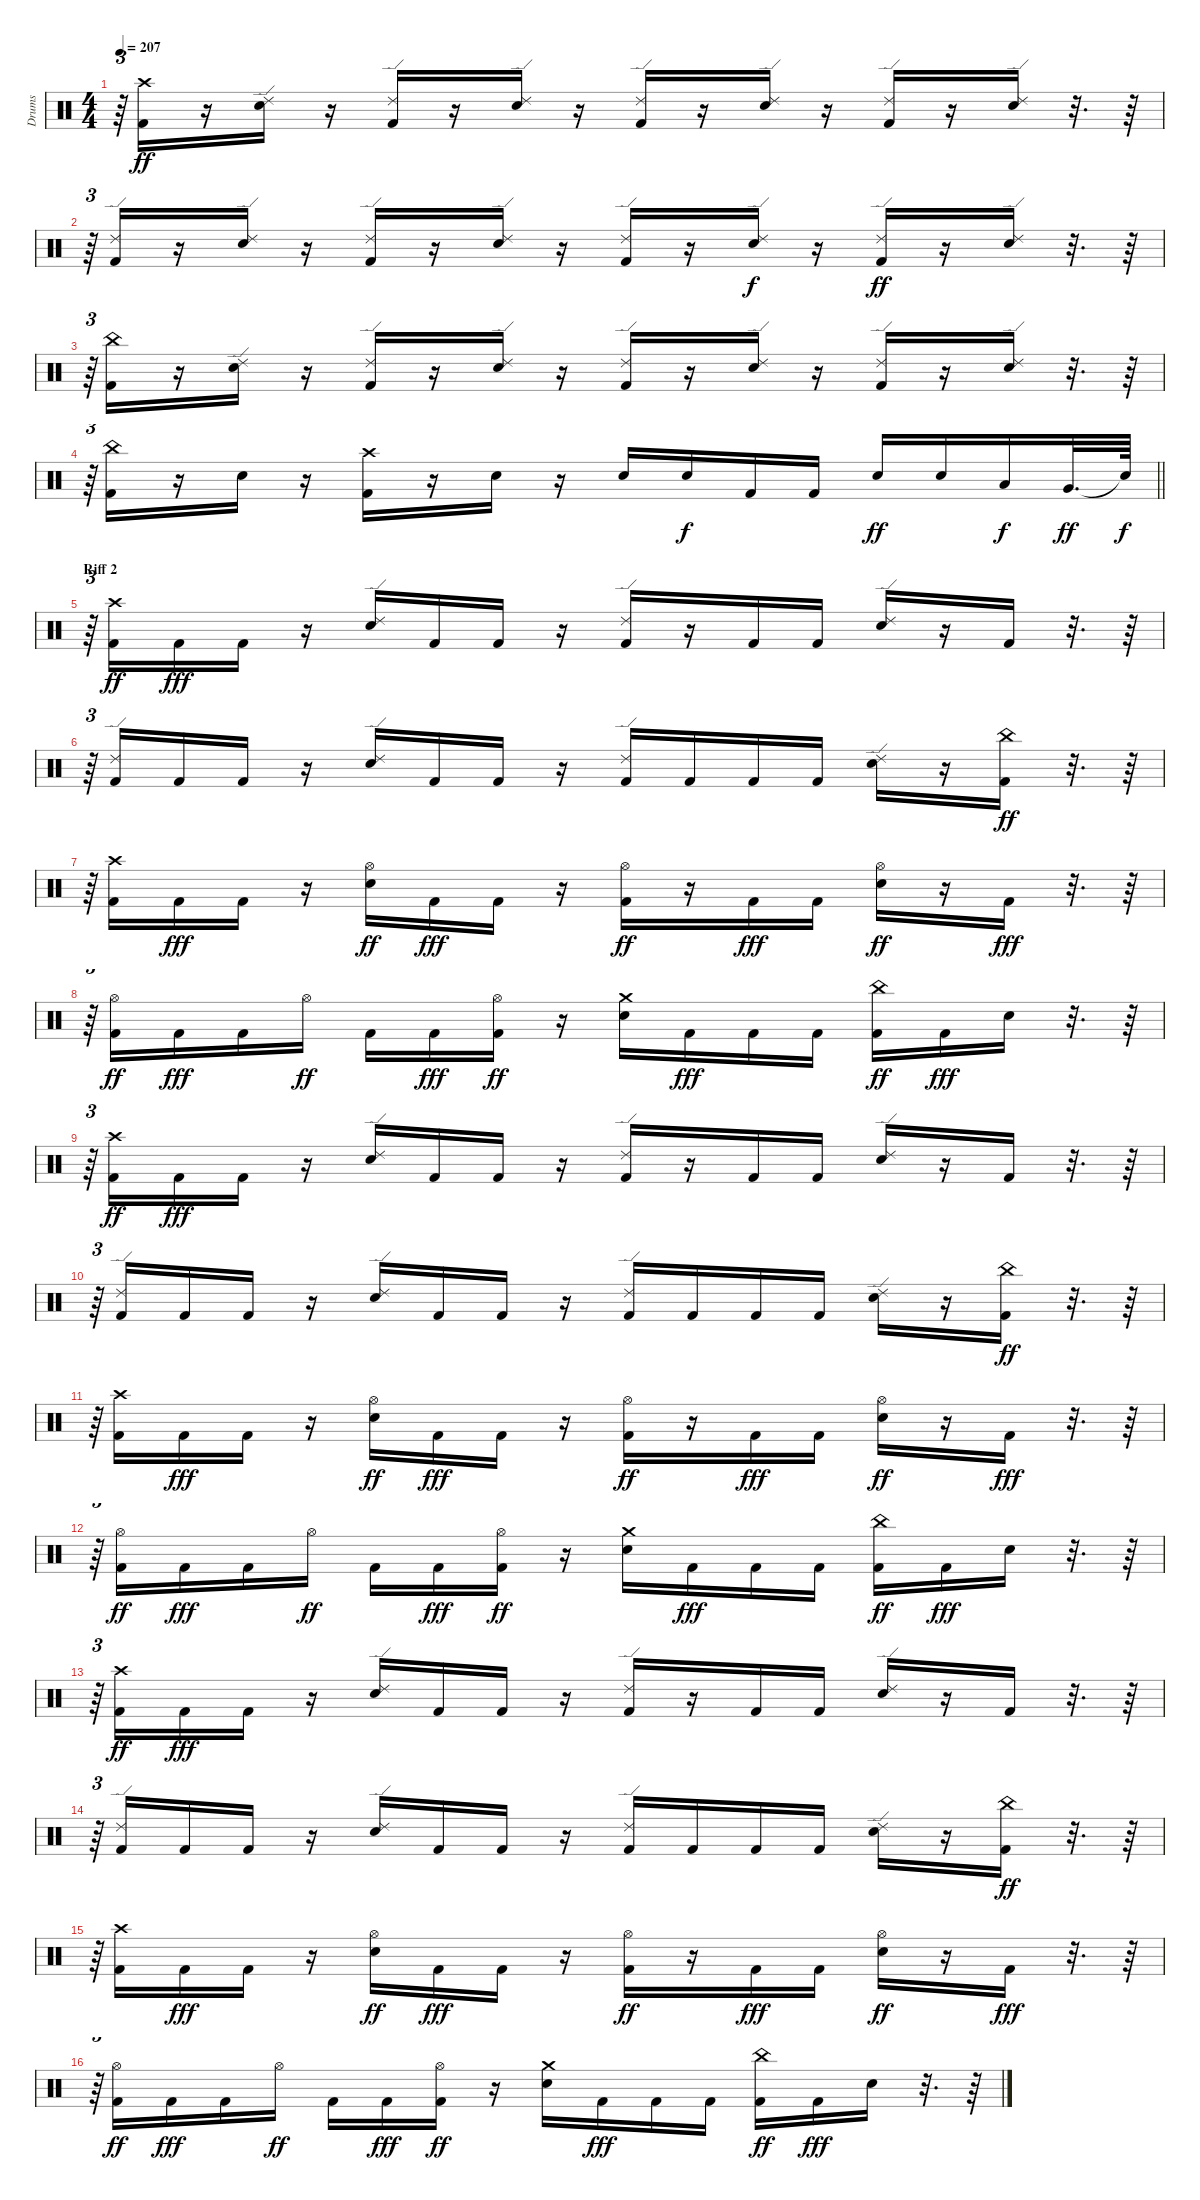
\track ("Drums" "Drums") {instrument percussion}
\staff {score}
\articulation defaults
\ts (4 4)
\tempo 207
\clef neutral
\ks c
r.64{tu (3 2) dy ff} ("Kick (hit) 2" "Crash high (hit)").16 r.16 ("Snare (hit) 2" "Ride (edge) 2").16 r.16 ("Kick (hit) 2" "Ride (edge) 2").16 r.16 ("Snare (hit) 2" "Ride (edge) 2").16 r.16 ("Kick (hit) 2" "Ride (edge) 2").16 r.16 ("Snare (hit) 2" "Ride (edge) 2").16 r.16 ("Kick (hit) 2" "Ride (edge) 2").16 r.16 ("Snare (hit) 2" "Ride (edge) 2").16 r.32{d} r.64 |
r.64{tu (3 2)} ("Kick (hit) 2" "Ride (edge) 2").16 r.16 ("Snare (hit) 2" "Ride (edge) 2").16 r.16 ("Kick (hit) 2" "Ride (edge) 2").16 r.16 ("Snare (hit) 2" "Ride (edge) 2").16 r.16 ("Kick (hit) 2" "Ride (edge) 2").16 r.16 ("Snare (hit) 2" "Ride (edge) 2").16{dy f} r.16 ("Kick (hit) 2" "Ride (edge) 2").16{dy ff} r.16 ("Snare (hit) 2" "Ride (edge) 2").16 r.32{d} r.64 |
r.64{tu (3 2)} ("Kick (hit) 2" "China (hit)").16 r.16 ("Snare (hit) 2" "Ride (edge) 2").16 r.16 ("Kick (hit) 2" "Ride (edge) 2").16 r.16 ("Snare (hit) 2" "Ride (edge) 2").16 r.16 ("Kick (hit) 2" "Ride (edge) 2").16 r.16 ("Snare (hit) 2" "Ride (edge) 2").16 r.16 ("Kick (hit) 2" "Ride (edge) 2").16 r.16 ("Snare (hit) 2" "Ride (edge) 2").16 r.32{d} r.64 |
\barLineRight lightlight
r.64{tu (3 2)} ("Kick (hit) 2" "China (hit)").16 r.16 "Snare (hit) 2".16 r.16 ("Kick (hit) 2" "Crash high (hit)").16 r.16 "Snare (hit) 2".16 r.16 "Snare (hit) 2".16 "Snare (hit) 2".16{dy f} "Kick (hit) 2".16 "Kick (hit) 2".16 "Snare (hit) 2".16{dy ff} "Snare (hit) 2".16 "Low Tom (hit)".16{dy f} "Very Low Tom (hit)".32{d dy ff} "Snare (hit)"{t}.64{dy f} |
\section ("" "Riff 2")
r.64{tu (3 2)} ("Kick (hit) 2" "Crash high (hit)").16{dy ff} "Kick (hit) 2".16{dy fff} "Kick (hit) 2".16 r.16 ("Snare (hit) 2" "Ride (edge) 2").16 "Kick (hit) 2".16 "Kick (hit) 2".16 r.16 ("Kick (hit) 2" "Ride (edge) 2").16 r.16 "Kick (hit) 2".16 "Kick (hit) 2".16 ("Snare (hit) 2" "Ride (edge) 2").16 r.16 "Kick (hit) 2".16 r.32{d} r.64 |
r.64{tu (3 2)} ("Kick (hit) 2" "Ride (edge) 2").16 "Kick (hit) 2".16 "Kick (hit) 2".16 r.16 ("Snare (hit) 2" "Ride (edge) 2").16 "Kick (hit) 2".16 "Kick (hit) 2".16 r.16 ("Kick (hit) 2" "Ride (edge) 2").16 "Kick (hit) 2".16 "Kick (hit) 2".16 "Kick (hit) 2".16 ("Snare (hit) 2" "Ride (edge) 2").16 r.16 ("Kick (hit) 2" "China (hit)").16{dy ff} r.32{d} r.64 |
r.64{tu (3 2)} ("Kick (hit) 2" "Crash high (hit)").16 "Kick (hit) 2".16{dy fff} "Kick (hit) 2".16 r.16 ("Snare (hit) 2" "Hi-Hat (open)").16{dy ff} "Kick (hit) 2".16{dy fff} "Kick (hit) 2".16 r.16 ("Kick (hit) 2" "Hi-Hat (open)").16{dy ff} r.16 "Kick (hit) 2".16{dy fff} "Kick (hit) 2".16 ("Snare (hit) 2" "Hi-Hat (open)").16{dy ff} r.16 "Kick (hit) 2".16{dy fff} r.32{d} r.64 |
r.64{tu (3 2)} ("Kick (hit) 2" "Hi-Hat (open)").16{dy ff} "Kick (hit) 2".16{dy fff} "Kick (hit) 2".16 "Hi-Hat (open)".16{dy ff} "Kick (hit) 2".16 "Kick (hit) 2".16{dy fff} ("Kick (hit) 2" "Hi-Hat (open)").16{dy ff} r.16 ("Snare (hit) 2" "Crash medium (hit)").16 "Kick (hit) 2".16{dy fff} "Kick (hit) 2".16 "Kick (hit) 2".16 ("Kick (hit) 2" "China (hit)").16{dy ff} "Kick (hit) 2".16{dy fff} "Snare (hit) 2".16 r.32{d} r.64 |
r.64{tu (3 2)} ("Kick (hit) 2" "Crash high (hit)").16{dy ff} "Kick (hit) 2".16{dy fff} "Kick (hit) 2".16 r.16 ("Snare (hit) 2" "Ride (edge) 2").16 "Kick (hit) 2".16 "Kick (hit) 2".16 r.16 ("Kick (hit) 2" "Ride (edge) 2").16 r.16 "Kick (hit) 2".16 "Kick (hit) 2".16 ("Snare (hit) 2" "Ride (edge) 2").16 r.16 "Kick (hit) 2".16 r.32{d} r.64 |
r.64{tu (3 2)} ("Kick (hit) 2" "Ride (edge) 2").16 "Kick (hit) 2".16 "Kick (hit) 2".16 r.16 ("Snare (hit) 2" "Ride (edge) 2").16 "Kick (hit) 2".16 "Kick (hit) 2".16 r.16 ("Kick (hit) 2" "Ride (edge) 2").16 "Kick (hit) 2".16 "Kick (hit) 2".16 "Kick (hit) 2".16 ("Snare (hit) 2" "Ride (edge) 2").16 r.16 ("Kick (hit) 2" "China (hit)").16{dy ff} r.32{d} r.64 |
r.64{tu (3 2)} ("Kick (hit) 2" "Crash high (hit)").16 "Kick (hit) 2".16{dy fff} "Kick (hit) 2".16 r.16 ("Snare (hit) 2" "Hi-Hat (open)").16{dy ff} "Kick (hit) 2".16{dy fff} "Kick (hit) 2".16 r.16 ("Kick (hit) 2" "Hi-Hat (open)").16{dy ff} r.16 "Kick (hit) 2".16{dy fff} "Kick (hit) 2".16 ("Snare (hit) 2" "Hi-Hat (open)").16{dy ff} r.16 "Kick (hit) 2".16{dy fff} r.32{d} r.64 |
r.64{tu (3 2)} ("Kick (hit) 2" "Hi-Hat (open)").16{dy ff} "Kick (hit) 2".16{dy fff} "Kick (hit) 2".16 "Hi-Hat (open)".16{dy ff} "Kick (hit) 2".16 "Kick (hit) 2".16{dy fff} ("Kick (hit) 2" "Hi-Hat (open)").16{dy ff} r.16 ("Snare (hit) 2" "Crash medium (hit)").16 "Kick (hit) 2".16{dy fff} "Kick (hit) 2".16 "Kick (hit) 2".16 ("Kick (hit) 2" "China (hit)").16{dy ff} "Kick (hit) 2".16{dy fff} "Snare (hit) 2".16 r.32{d} r.64 |
r.64{tu (3 2)} ("Kick (hit) 2" "Crash high (hit)").16{dy ff} "Kick (hit) 2".16{dy fff} "Kick (hit) 2".16 r.16 ("Snare (hit) 2" "Ride (edge) 2").16 "Kick (hit) 2".16 "Kick (hit) 2".16 r.16 ("Kick (hit) 2" "Ride (edge) 2").16 r.16 "Kick (hit) 2".16 "Kick (hit) 2".16 ("Snare (hit) 2" "Ride (edge) 2").16 r.16 "Kick (hit) 2".16 r.32{d} r.64 |
r.64{tu (3 2)} ("Kick (hit) 2" "Ride (edge) 2").16 "Kick (hit) 2".16 "Kick (hit) 2".16 r.16 ("Snare (hit) 2" "Ride (edge) 2").16 "Kick (hit) 2".16 "Kick (hit) 2".16 r.16 ("Kick (hit) 2" "Ride (edge) 2").16 "Kick (hit) 2".16 "Kick (hit) 2".16 "Kick (hit) 2".16 ("Snare (hit) 2" "Ride (edge) 2").16 r.16 ("Kick (hit) 2" "China (hit)").16{dy ff} r.32{d} r.64 |
r.64{tu (3 2)} ("Kick (hit) 2" "Crash high (hit)").16 "Kick (hit) 2".16{dy fff} "Kick (hit) 2".16 r.16 ("Snare (hit) 2" "Hi-Hat (open)").16{dy ff} "Kick (hit) 2".16{dy fff} "Kick (hit) 2".16 r.16 ("Kick (hit) 2" "Hi-Hat (open)").16{dy ff} r.16 "Kick (hit) 2".16{dy fff} "Kick (hit) 2".16 ("Snare (hit) 2" "Hi-Hat (open)").16{dy ff} r.16 "Kick (hit) 2".16{dy fff} r.32{d} r.64 |
r.64{tu (3 2)} ("Kick (hit) 2" "Hi-Hat (open)").16{dy ff} "Kick (hit) 2".16{dy fff} "Kick (hit) 2".16 "Hi-Hat (open)".16{dy ff} "Kick (hit) 2".16 "Kick (hit) 2".16{dy fff} ("Kick (hit) 2" "Hi-Hat (open)").16{dy ff} r.16 ("Snare (hit) 2" "Crash medium (hit)").16 "Kick (hit) 2".16{dy fff} "Kick (hit) 2".16 "Kick (hit) 2".16 ("Kick (hit) 2" "China (hit)").16{dy ff} "Kick (hit) 2".16{dy fff} "Snare (hit) 2".16 r.32{d} r.64
